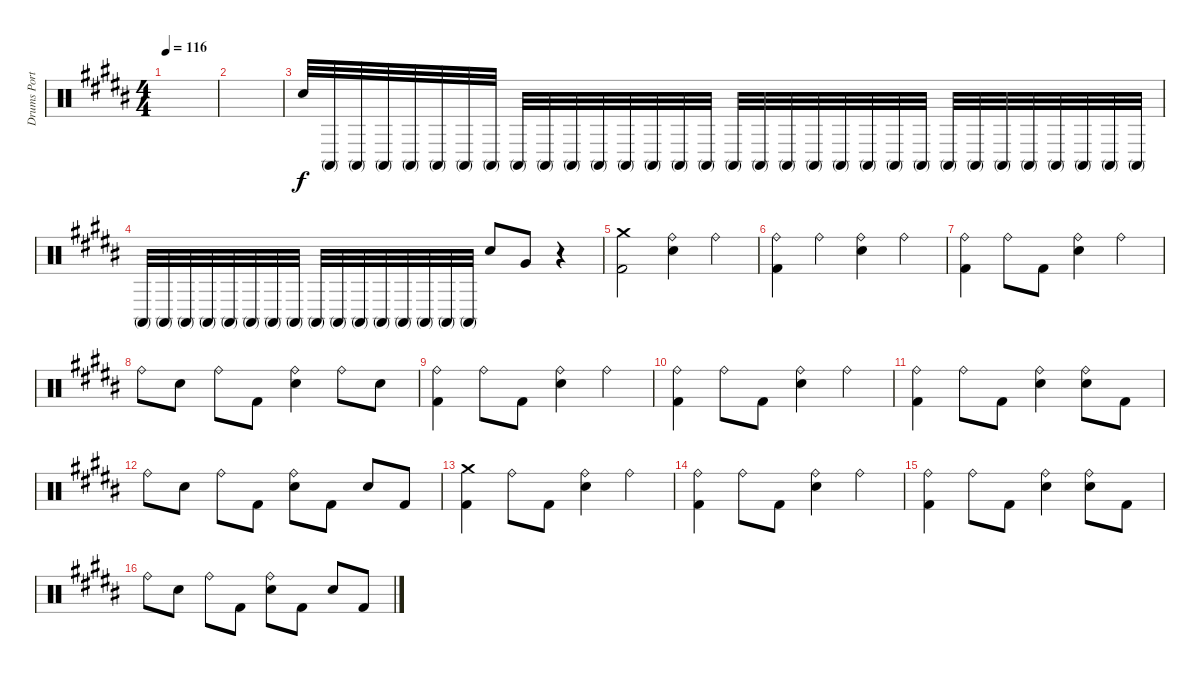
\track ("Drums Portnoy" "Drums Port") {instrument percussion}
\staff {score}
\articulation defaults
\ts (4 4)
\tempo 116
\clef neutral
\ks g#minor
|
|
"Snare (hit) 2".32 "Conga high (mute)".32 "Conga high (mute)".32 "Conga high (mute)".32 "Conga high (mute)".32 "Conga high (mute)".32 "Conga high (mute)".32 "Conga high (mute)".32 "Conga high (mute)".32 "Conga high (mute)".32 "Conga high (mute)".32 "Conga high (mute)".32 "Conga high (mute)".32 "Conga high (mute)".32 "Conga high (mute)".32 "Conga high (mute)".32 "Conga high (mute)".32 "Conga high (mute)".32 "Conga high (mute)".32 "Conga high (mute)".32 "Conga high (mute)".32 "Conga high (mute)".32 "Conga high (mute)".32 "Conga high (mute)".32 "Conga high (mute)".32 "Conga high (mute)".32 "Conga high (mute)".32 "Conga high (mute)".32 "Conga high (mute)".32 "Conga high (mute)".32 "Conga high (mute)".32 "Conga high (mute)".32 |
\ks b "Conga high (mute)".32 "Conga high (mute)".32 "Conga high (mute)".32 "Conga high (mute)".32 "Conga high (mute)".32 "Conga high (mute)".32 "Conga high (mute)".32 "Conga high (mute)".32 "Conga high (mute)".32 "Conga high (mute)".32 "Conga high (mute)".32 "Conga high (mute)".32 "Conga high (mute)".32 "Conga high (mute)".32 "Conga high (mute)".32 "Conga high (mute)".32 "Snare (hit) 2".8 "Very Low Tom (hit)".8
r.4 |
\ks g#minor
("Crash medium (hit)" "Kick (hit) 2").2 ("Ride (bell)" "Snare (hit) 2").4 "Ride (bell)".4 |
("Ride (bell)" "Kick (hit) 2").4 "Ride (bell)".4 ("Ride (bell)" "Snare (hit) 2").4 "Ride (bell)".4 |
("Ride (bell)" "Kick (hit) 2").4 "Ride (bell)".8 "Kick (hit) 2".8 ("Ride (bell)" "Snare (hit) 2").4 "Ride (bell)".4 |
\ks b "Ride (bell)".8 "Snare (hit) 2".8 "Ride (bell)".8 "Kick (hit) 2".8
("Ride (bell)" "Snare (hit) 2").4 "Ride (bell)".8 "Snare (hit) 2".8 |
\ks g#minor
("Ride (bell)" "Kick (hit) 2").4 "Ride (bell)".8 "Kick (hit) 2".8 ("Ride (bell)" "Snare (hit) 2").4 "Ride (bell)".4 |
("Ride (bell)" "Kick (hit) 2").4 "Ride (bell)".8 "Kick (hit) 2".8 ("Ride (bell)" "Snare (hit) 2").4 "Ride (bell)".4 |
("Ride (bell)" "Kick (hit) 2").4 "Ride (bell)".8 "Kick (hit) 2".8 ("Ride (bell)" "Snare (hit) 2").4 ("Ride (bell)" "Snare (hit) 2").8 "Kick (hit) 2".8 |
\ks b "Ride (bell)".8 "Snare (hit) 2".8 "Ride (bell)".8 "Kick (hit) 2".8
("Ride (bell)" "Snare (hit) 2").8 "Kick (hit) 2".8 "Snare (hit) 2".8 "Kick (hit) 2".8 |
\ks g#minor
("Crash medium (hit)" "Kick (hit) 2").4 "Ride (bell)".8 "Kick (hit) 2".8 ("Ride (bell)" "Snare (hit) 2").4 "Ride (bell)".4 |
("Ride (bell)" "Kick (hit) 2").4 "Ride (bell)".8 "Kick (hit) 2".8 ("Ride (bell)" "Snare (hit) 2").4 "Ride (bell)".4 |
("Ride (bell)" "Kick (hit) 2").4 "Ride (bell)".8 "Kick (hit) 2".8 ("Ride (bell)" "Snare (hit) 2").4 ("Ride (bell)" "Snare (hit) 2").8 "Kick (hit) 2".8 |
\ks b "Ride (bell)".8 "Snare (hit) 2".8 "Ride (bell)".8 "Kick (hit) 2".8
("Ride (bell)" "Snare (hit) 2").8 "Kick (hit) 2".8 "Snare (hit) 2".8 "Kick (hit) 2".8
